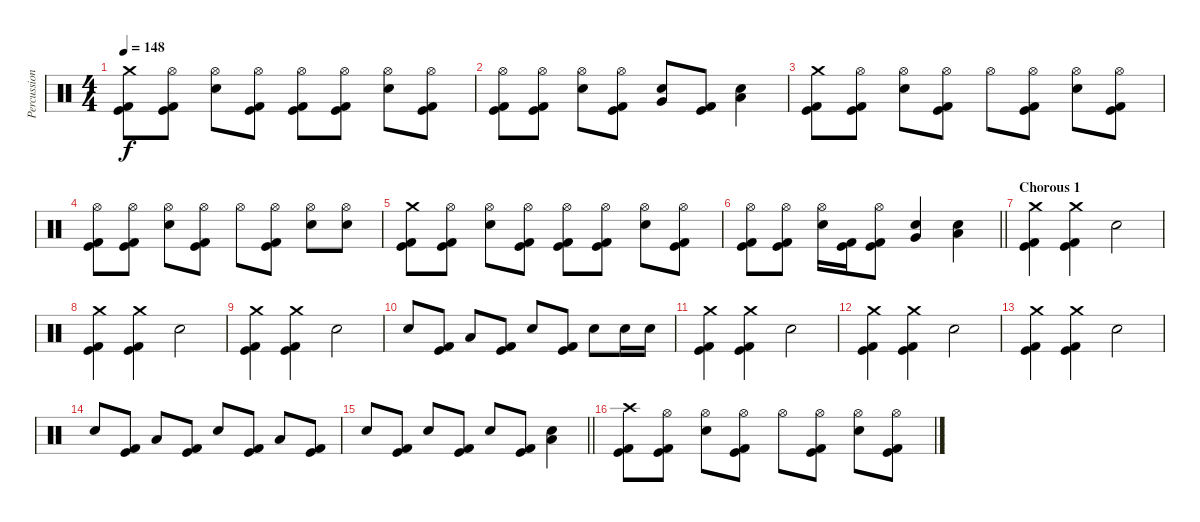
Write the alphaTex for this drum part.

\track ("Percussion" "Percussion") {instrument percussion}
\staff {score}
\articulation defaults
\ts (4 4)
\section ("" "")
\tempo 148
\clef neutral
\ks c
("Crash medium (hit)" "Kick (hit)" "Kick (hit) 2").8{dy f} ("Hi-Hat (open)" "Kick (hit)" "Kick (hit) 2").8 ("Hi-Hat (open)" "Electric Snare (hit)").8 ("Hi-Hat (open)" "Kick (hit)" "Kick (hit) 2").8 ("Hi-Hat (open)" "Kick (hit)" "Kick (hit) 2").8 ("Hi-Hat (open)" "Kick (hit)" "Kick (hit) 2").8 ("Hi-Hat (open)" "Electric Snare (hit)").8 ("Hi-Hat (open)" "Kick (hit)" "Kick (hit) 2").8 |
("Hi-Hat (open)" "Kick (hit)" "Kick (hit) 2").8 ("Hi-Hat (open)" "Kick (hit)" "Kick (hit) 2").8 ("Hi-Hat (open)" "Electric Snare (hit)").8 ("Hi-Hat (open)" "Kick (hit)" "Kick (hit) 2").8 ("Electric Snare (hit)" "Very Low Tom (hit)").8 ("Kick (hit)" "Kick (hit) 2").8 ("Electric Snare (hit)" "Low Floor Tom (hit)").4 |
("Crash medium (hit)" "Kick (hit)" "Kick (hit) 2").8 ("Hi-Hat (open)" "Kick (hit)" "Kick (hit) 2").8 ("Hi-Hat (open)" "Electric Snare (hit)").8 ("Hi-Hat (open)" "Kick (hit)" "Kick (hit) 2").8 "Hi-Hat (open)".8 ("Hi-Hat (open)" "Kick (hit)" "Kick (hit) 2").8 ("Hi-Hat (open)" "Electric Snare (hit)").8 ("Hi-Hat (open)" "Kick (hit)" "Kick (hit) 2").8 |
("Hi-Hat (open)" "Kick (hit)" "Kick (hit) 2").8 ("Hi-Hat (open)" "Kick (hit)" "Kick (hit) 2").8 ("Hi-Hat (open)" "Electric Snare (hit)").8 ("Hi-Hat (open)" "Kick (hit)" "Kick (hit) 2").8 "Hi-Hat (open)".8 ("Hi-Hat (open)" "Kick (hit)" "Kick (hit) 2").8 ("Hi-Hat (open)" "Electric Snare (hit)").8 ("Hi-Hat (open)" "Electric Snare (hit)").8 |
("Crash medium (hit)" "Kick (hit)" "Kick (hit) 2").8 ("Hi-Hat (open)" "Kick (hit)" "Kick (hit) 2").8 ("Hi-Hat (open)" "Electric Snare (hit)").8 ("Hi-Hat (open)" "Kick (hit)" "Kick (hit) 2").8 ("Hi-Hat (open)" "Kick (hit)" "Kick (hit) 2").8 ("Hi-Hat (open)" "Kick (hit)" "Kick (hit) 2").8 ("Hi-Hat (open)" "Electric Snare (hit)").8 ("Hi-Hat (open)" "Kick (hit)" "Kick (hit) 2").8 |
\barLineRight lightlight
("Hi-Hat (open)" "Kick (hit)" "Kick (hit) 2").8 ("Hi-Hat (open)" "Kick (hit)" "Kick (hit) 2").8 ("Hi-Hat (open)" "Electric Snare (hit)").16 ("Kick (hit)" "Kick (hit) 2").16 ("Hi-Hat (open)" "Kick (hit)" "Kick (hit) 2").8 ("Electric Snare (hit)" "Very Low Tom (hit)").4 ("Electric Snare (hit)" "Low Floor Tom (hit)").4 |
\section ("" "Chorous 1")
("Crash medium (hit)" "Kick (hit)" "Kick (hit) 2").4 ("Crash medium (hit)" "Kick (hit)" "Kick (hit) 2").4 "Electric Snare (hit)".2 |
("Crash medium (hit)" "Kick (hit)" "Kick (hit) 2").4 ("Crash medium (hit)" "Kick (hit)" "Kick (hit) 2").4 "Electric Snare (hit)".2 |
("Crash medium (hit)" "Kick (hit)" "Kick (hit) 2").4 ("Crash medium (hit)" "Kick (hit)" "Kick (hit) 2").4 "Electric Snare (hit)".2 |
"Electric Snare (hit)".8 ("Kick (hit)" "Kick (hit) 2").8 "Low Floor Tom (hit)".8 ("Kick (hit)" "Kick (hit) 2").8 "Electric Snare (hit)".8 ("Kick (hit)" "Kick (hit) 2").8 "Electric Snare (hit)".8 "Electric Snare (hit)".16 "Electric Snare (hit)".16 |
("Crash medium (hit)" "Kick (hit)" "Kick (hit) 2").4 ("Crash medium (hit)" "Kick (hit)" "Kick (hit) 2").4 "Electric Snare (hit)".2 |
("Crash medium (hit)" "Kick (hit)" "Kick (hit) 2").4 ("Crash medium (hit)" "Kick (hit)" "Kick (hit) 2").4 "Electric Snare (hit)".2 |
("Crash medium (hit)" "Kick (hit)" "Kick (hit) 2").4 ("Crash medium (hit)" "Kick (hit)" "Kick (hit) 2").4 "Electric Snare (hit)".2 |
"Electric Snare (hit)".8 ("Kick (hit)" "Kick (hit) 2").8 "Low Floor Tom (hit)".8 ("Kick (hit)" "Kick (hit) 2").8 "Electric Snare (hit)".8 ("Kick (hit)" "Kick (hit) 2").8 "Low Floor Tom (hit)".8 ("Kick (hit)" "Kick (hit) 2").8 |
\barLineRight lightlight "Electric Snare (hit)".8
("Kick (hit)" "Kick (hit) 2").8 "Electric Snare (hit)".8 ("Kick (hit)" "Kick (hit) 2").8 "Electric Snare (hit)".8 ("Kick (hit)" "Kick (hit) 2").8 ("Electric Snare (hit)" "Low Floor Tom (hit)").4 |
\section ("" "")
("Crash high (hit)" "Kick (hit)" "Kick (hit) 2").8 ("Hi-Hat (open)" "Kick (hit)" "Kick (hit) 2").8 ("Hi-Hat (open)" "Electric Snare (hit)").8 ("Hi-Hat (open)" "Kick (hit)" "Kick (hit) 2").8 "Hi-Hat (open)".8 ("Hi-Hat (open)" "Kick (hit)" "Kick (hit) 2").8 ("Hi-Hat (open)" "Electric Snare (hit)").8 ("Hi-Hat (open)" "Kick (hit)" "Kick (hit) 2").8
